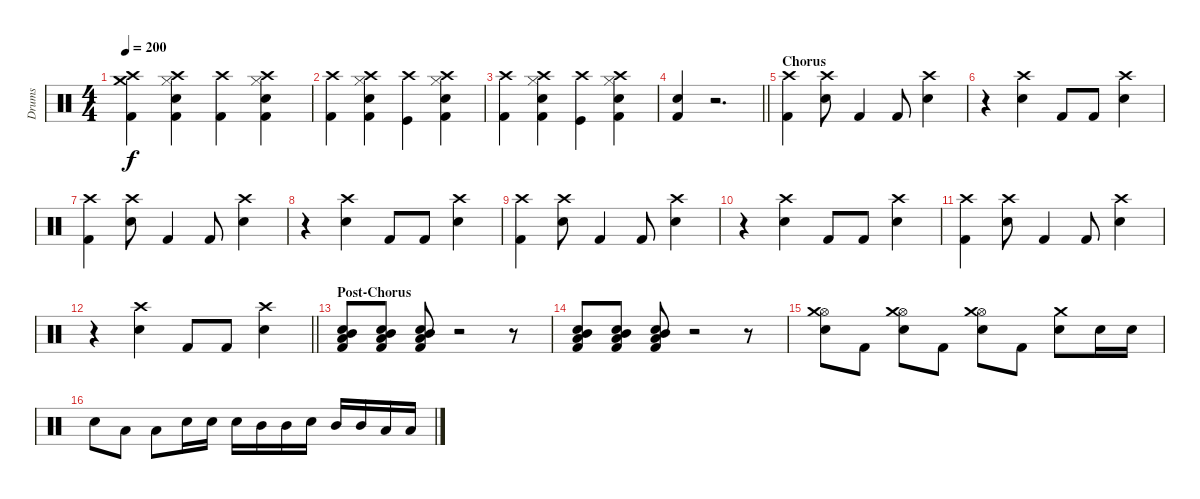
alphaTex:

\track ("Drums" "Drums") {instrument percussion}
\staff {score}
\articulation defaults
\ts (4 4)
\tempo 200
\clef neutral
\ks c
("Crash high (hit)" "Crash medium (hit)" "Kick (hit) 2").4{dy f} ("Crash high (hit)" "Hi-Hat (closed)" "Snare (hit) 2" "Kick (hit) 2").4 ("Crash high (hit)" "Kick (hit) 2").4 ("Crash high (hit)" "Hi-Hat (closed)" "Snare (hit) 2" "Kick (hit) 2").4 |
("Crash high (hit)" "Kick (hit) 2").4 ("Crash high (hit)" "Hi-Hat (closed)" "Snare (hit) 2" "Kick (hit) 2").4 ("Crash high (hit)" "Kick (hit)").4 ("Crash high (hit)" "Hi-Hat (closed)" "Snare (hit) 2" "Kick (hit) 2").4 |
("Crash high (hit)" "Kick (hit) 2").4 ("Crash high (hit)" "Hi-Hat (closed)" "Snare (hit) 2" "Kick (hit) 2").4 ("Crash high (hit)" "Kick (hit)").4 ("Crash high (hit)" "Hi-Hat (closed)" "Snare (hit) 2" "Kick (hit) 2").4 |
\barLineRight lightlight
("Kick (hit) 2" "Snare (hit) 2").4 r.2{d} |
\section ("" "Chorus")
("Crash high (hit)" "Kick (hit) 2").4 ("Crash high (hit)" "Electric Snare (hit)").8 "Kick (hit) 2".4 "Kick (hit) 2".8 ("Crash high (hit)" "Electric Snare (hit)").4 |
r.4 ("Crash high (hit)" "Electric Snare (hit)").4 "Kick (hit) 2".8 "Kick (hit) 2".8 ("Crash high (hit)" "Electric Snare (hit)").4 |
("Crash high (hit)" "Kick (hit) 2").4 ("Crash high (hit)" "Electric Snare (hit)").8 "Kick (hit) 2".4 "Kick (hit) 2".8 ("Crash high (hit)" "Electric Snare (hit)").4 |
r.4 ("Crash high (hit)" "Electric Snare (hit)").4 "Kick (hit) 2".8 "Kick (hit) 2".8 ("Crash high (hit)" "Electric Snare (hit)").4 |
("Crash high (hit)" "Kick (hit) 2").4 ("Crash high (hit)" "Electric Snare (hit)").8 "Kick (hit) 2".4 "Kick (hit) 2".8 ("Crash high (hit)" "Electric Snare (hit)").4 |
r.4 ("Crash high (hit)" "Electric Snare (hit)").4 "Kick (hit) 2".8 "Kick (hit) 2".8 ("Crash high (hit)" "Electric Snare (hit)").4 |
("Crash high (hit)" "Kick (hit) 2").4 ("Crash high (hit)" "Electric Snare (hit)").8 "Kick (hit) 2".4 "Kick (hit) 2".8 ("Crash high (hit)" "Electric Snare (hit)").4 |
\barLineRight lightlight
r.4 ("Crash high (hit)" "Electric Snare (hit)").4 "Kick (hit) 2".8 "Kick (hit) 2".8 ("Crash high (hit)" "Electric Snare (hit)").4 |
\section ("" "Post-Chorus")
("Low Floor Tom (hit)" "Mid Tom (hit)" "Snare (hit) 2" "Kick (hit) 2").8 ("Low Floor Tom (hit)" "Mid Tom (hit)" "Snare (hit) 2" "Kick (hit) 2").8 ("Low Floor Tom (hit)" "Mid Tom (hit)" "Snare (hit) 2" "Kick (hit) 2").8 r.2 r.8 |
("Low Floor Tom (hit)" "Mid Tom (hit)" "Snare (hit) 2" "Kick (hit) 2").8 ("Low Floor Tom (hit)" "Mid Tom (hit)" "Snare (hit) 2" "Kick (hit) 2").8 ("Low Floor Tom (hit)" "Mid Tom (hit)" "Snare (hit) 2" "Kick (hit) 2").8 r.2 r.8 |
("Hi-Hat (open)" "Electric Snare (hit)" "Crash medium (hit)").8 "Kick (hit) 2".8 ("Hi-Hat (open)" "Electric Snare (hit)" "Crash medium (hit)").8 "Kick (hit) 2".8 ("Hi-Hat (open)" "Electric Snare (hit)" "Crash medium (hit)").8 "Kick (hit) 2".8 ("Electric Snare (hit)" "Crash medium (hit)").8 "Electric Snare (hit)".16{volume 12} "Electric Snare (hit)".16 |
"Electric Snare (hit)".8 "Low Floor Tom (hit)".8 "Low Floor Tom (hit)".8 "Electric Snare (hit)".16 "Electric Snare (hit)".16 "Electric Snare (hit)".16 "Mid Tom (hit)".16 "Mid Tom (hit)".16 "Electric Snare (hit)".16 "Mid Tom (hit)".16 "Mid Tom (hit)".16 "Low Floor Tom (hit)".16 "Low Floor Tom (hit)".16
